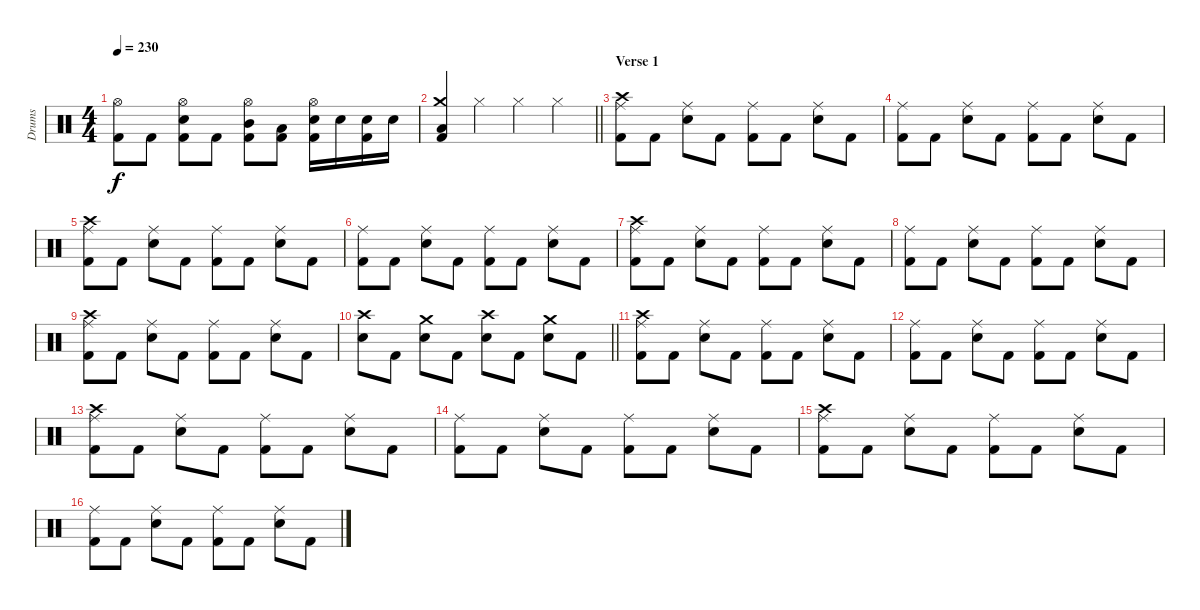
\track ("Drums" "Drums") {instrument percussion}
\staff {score}
\articulation defaults
\ts (4 4)
\tempo 230
\clef neutral
\ks c
("Hi-Hat (open)" "Kick (hit) 2").8{dy f} "Kick (hit) 2".8 ("Hi-Hat (open)" "Snare (hit) 2" "Kick (hit) 2").8 "Kick (hit) 2".8 ("Hi-Hat (open)" "Mid Tom (hit)" "Kick (hit) 2").8 ("Low Tom (hit)" "Kick (hit) 2").8 ("Hi-Hat (open)" "Snare (hit) 2" "Kick (hit) 2").16 "Snare (hit) 2".16 ("Snare (hit) 2" "Kick (hit) 2").16 "Snare (hit) 2".16 |
\barLineRight lightlight
("Crash medium (hit)" "Low Floor Tom (hit)" "Kick (hit) 2").4 "Hi-Hat (closed)".4 "Hi-Hat (closed)".4 "Hi-Hat (closed)".4 |
\section ("" "Verse 1")
("Crash high (hit)" "Ride (middle)" "Kick (hit) 2").8 "Kick (hit) 2".8 ("Ride (middle)" "Snare (hit) 2").8 "Kick (hit) 2".8 ("Ride (middle)" "Kick (hit) 2").8 "Kick (hit) 2".8 ("Ride (middle)" "Snare (hit) 2").8 "Kick (hit) 2".8 |
("Ride (middle)" "Kick (hit) 2").8 "Kick (hit) 2".8 ("Ride (middle)" "Snare (hit) 2").8 "Kick (hit) 2".8 ("Ride (middle)" "Kick (hit) 2").8 "Kick (hit) 2".8 ("Ride (middle)" "Snare (hit) 2").8 "Kick (hit) 2".8 |
("Crash high (hit)" "Ride (middle)" "Kick (hit) 2").8 "Kick (hit) 2".8 ("Ride (middle)" "Snare (hit) 2").8 "Kick (hit) 2".8 ("Ride (middle)" "Kick (hit) 2").8 "Kick (hit) 2".8 ("Ride (middle)" "Snare (hit) 2").8 "Kick (hit) 2".8 |
("Ride (middle)" "Kick (hit) 2").8 "Kick (hit) 2".8 ("Ride (middle)" "Snare (hit) 2").8 "Kick (hit) 2".8 ("Ride (middle)" "Kick (hit) 2").8 "Kick (hit) 2".8 ("Ride (middle)" "Snare (hit) 2").8 "Kick (hit) 2".8 |
("Crash high (hit)" "Ride (middle)" "Kick (hit) 2").8 "Kick (hit) 2".8 ("Ride (middle)" "Snare (hit) 2").8 "Kick (hit) 2".8 ("Ride (middle)" "Kick (hit) 2").8 "Kick (hit) 2".8 ("Ride (middle)" "Snare (hit) 2").8 "Kick (hit) 2".8 |
("Ride (middle)" "Kick (hit) 2").8 "Kick (hit) 2".8 ("Ride (middle)" "Snare (hit) 2").8 "Kick (hit) 2".8 ("Ride (middle)" "Kick (hit) 2").8 "Kick (hit) 2".8 ("Ride (middle)" "Snare (hit) 2").8 "Kick (hit) 2".8 |
("Crash high (hit)" "Ride (middle)" "Kick (hit) 2").8 "Kick (hit) 2".8 ("Ride (middle)" "Snare (hit) 2").8 "Kick (hit) 2".8 ("Ride (middle)" "Kick (hit) 2").8 "Kick (hit) 2".8 ("Ride (middle)" "Snare (hit) 2").8 "Kick (hit) 2".8 |
\barLineRight lightlight
("Crash high (hit)" "Snare (hit) 2").8 "Kick (hit) 2".8 ("Crash medium (hit)" "Snare (hit) 2").8 "Kick (hit) 2".8 ("Crash high (hit)" "Snare (hit) 2").8 "Kick (hit) 2".8 ("Crash medium (hit)" "Snare (hit) 2").8 "Kick (hit) 2".8 |
("Crash high (hit)" "Ride (middle)" "Kick (hit) 2").8 "Kick (hit) 2".8 ("Ride (middle)" "Snare (hit) 2").8 "Kick (hit) 2".8 ("Ride (middle)" "Kick (hit) 2").8 "Kick (hit) 2".8 ("Ride (middle)" "Snare (hit) 2").8 "Kick (hit) 2".8 |
("Ride (middle)" "Kick (hit) 2").8 "Kick (hit) 2".8 ("Ride (middle)" "Snare (hit) 2").8 "Kick (hit) 2".8 ("Ride (middle)" "Kick (hit) 2").8 "Kick (hit) 2".8 ("Ride (middle)" "Snare (hit) 2").8 "Kick (hit) 2".8 |
("Crash high (hit)" "Ride (middle)" "Kick (hit) 2").8 "Kick (hit) 2".8 ("Ride (middle)" "Snare (hit) 2").8 "Kick (hit) 2".8 ("Ride (middle)" "Kick (hit) 2").8 "Kick (hit) 2".8 ("Ride (middle)" "Snare (hit) 2").8 "Kick (hit) 2".8 |
("Ride (middle)" "Kick (hit) 2").8 "Kick (hit) 2".8 ("Ride (middle)" "Snare (hit) 2").8 "Kick (hit) 2".8 ("Ride (middle)" "Kick (hit) 2").8 "Kick (hit) 2".8 ("Ride (middle)" "Snare (hit) 2").8 "Kick (hit) 2".8 |
("Crash high (hit)" "Ride (middle)" "Kick (hit) 2").8 "Kick (hit) 2".8 ("Ride (middle)" "Snare (hit) 2").8 "Kick (hit) 2".8 ("Ride (middle)" "Kick (hit) 2").8 "Kick (hit) 2".8 ("Ride (middle)" "Snare (hit) 2").8 "Kick (hit) 2".8 |
("Ride (middle)" "Kick (hit) 2").8 "Kick (hit) 2".8 ("Ride (middle)" "Snare (hit) 2").8 "Kick (hit) 2".8 ("Ride (middle)" "Kick (hit) 2").8 "Kick (hit) 2".8 ("Ride (middle)" "Snare (hit) 2").8 "Kick (hit) 2".8
